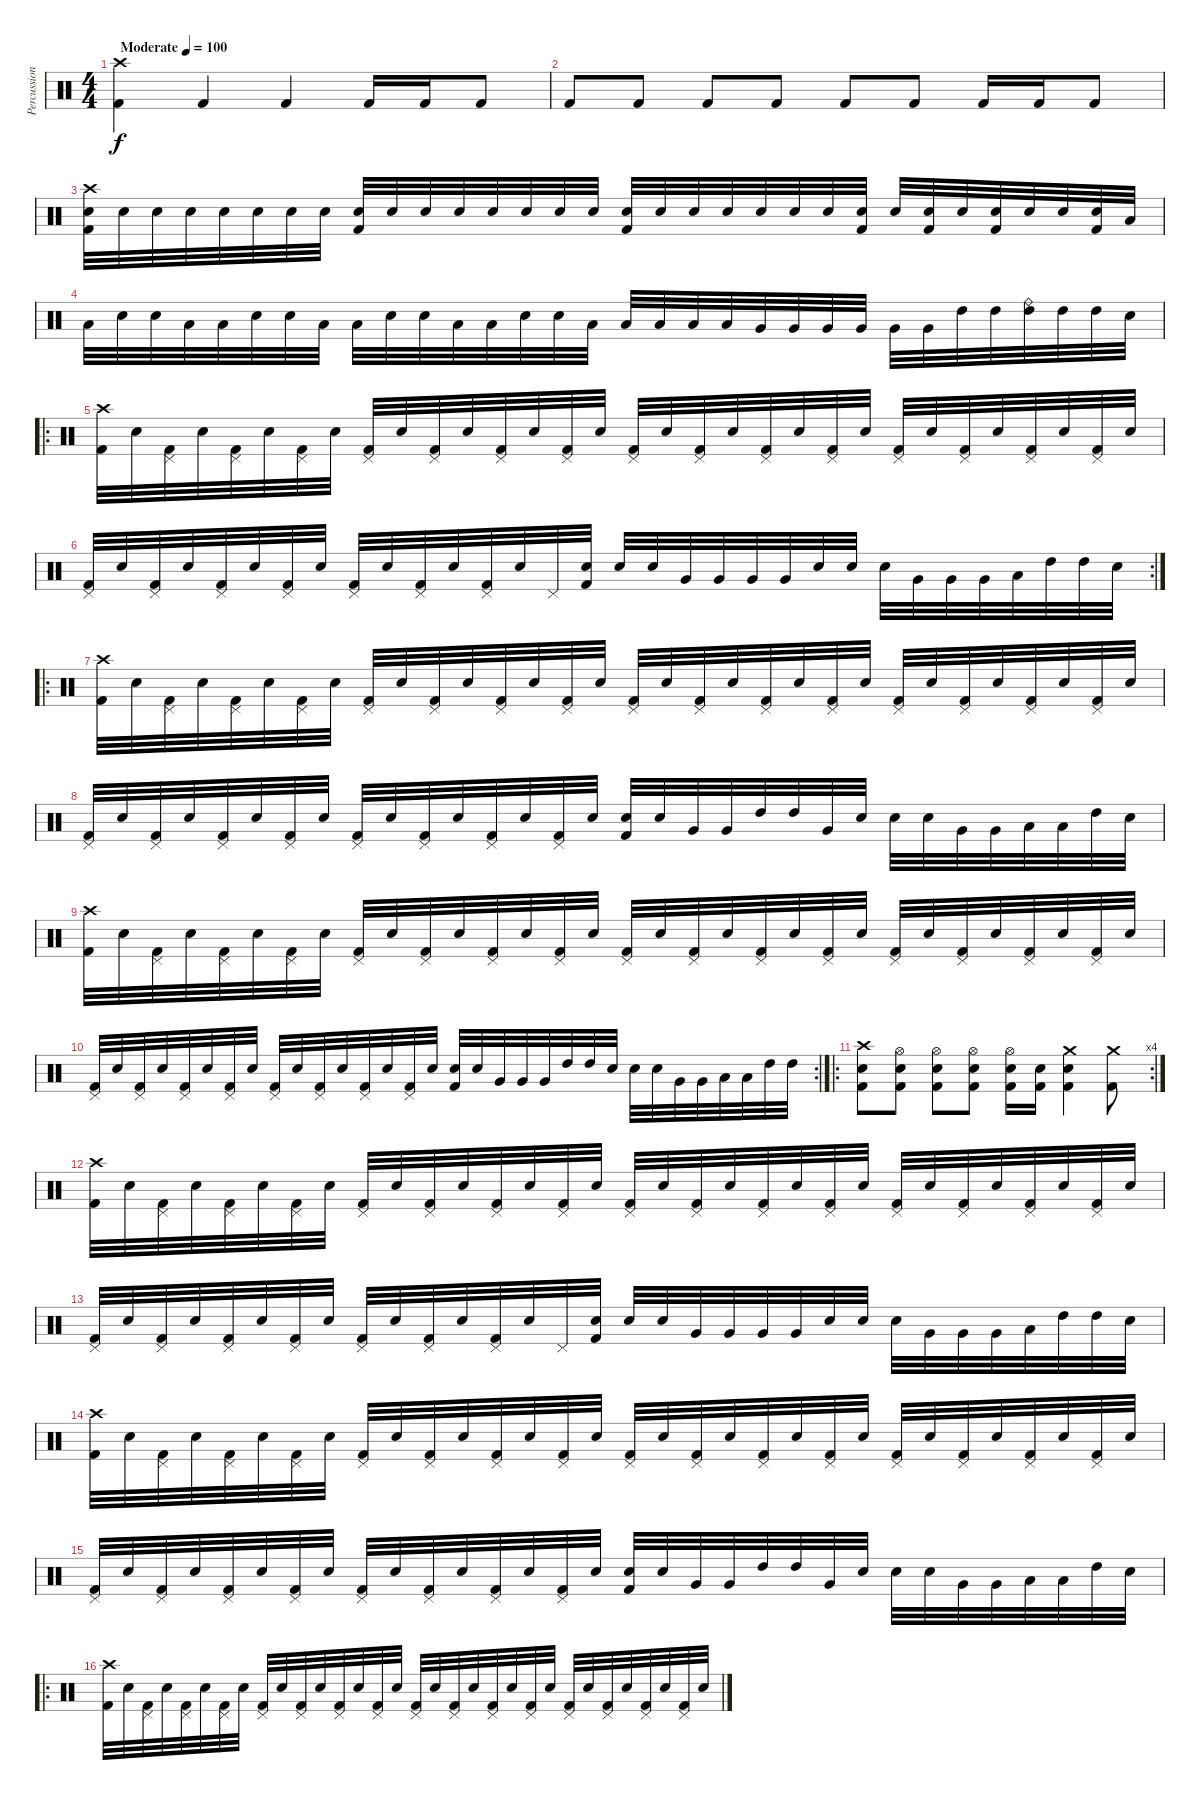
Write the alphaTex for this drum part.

\track ("Percussion" "Percussion") {instrument percussion}
\staff {score}
\articulation defaults
\ts (4 4)
\tempo (100 "Moderate")
\clef neutral
\ks c
("Crash high (hit)" "Kick (hit) 2").4{dy f} "Kick (hit) 2".4 "Kick (hit) 2".4 "Kick (hit) 2".16 "Kick (hit) 2".16 "Kick (hit) 2".8 |
"Kick (hit) 2".8 "Kick (hit) 2".8 "Kick (hit) 2".8 "Kick (hit) 2".8 "Kick (hit) 2".8 "Kick (hit) 2".8 "Kick (hit) 2".16 "Kick (hit) 2".16 "Kick (hit) 2".8 |
("Crash high (hit)" "Electric Snare (hit)" "Kick (hit) 2").32 "Electric Snare (hit)".32 "Electric Snare (hit)".32 "Electric Snare (hit)".32 "Electric Snare (hit)".32 "Electric Snare (hit)".32 "Electric Snare (hit)".32 "Electric Snare (hit)".32 ("Electric Snare (hit)" "Kick (hit) 2").32 "Electric Snare (hit)".32 "Electric Snare (hit)".32 "Electric Snare (hit)".32 "Electric Snare (hit)".32 "Electric Snare (hit)".32 "Electric Snare (hit)".32 "Electric Snare (hit)".32 ("Electric Snare (hit)" "Kick (hit) 2").32 "Electric Snare (hit)".32 "Electric Snare (hit)".32 "Electric Snare (hit)".32 "Electric Snare (hit)".32 "Electric Snare (hit)".32 "Electric Snare (hit)".32 ("Electric Snare (hit)" "Kick (hit) 2").32 "Electric Snare (hit)".32 ("Electric Snare (hit)" "Kick (hit) 2").32 "Electric Snare (hit)".32 ("Electric Snare (hit)" "Kick (hit) 2").32 "Electric Snare (hit)".32 "Electric Snare (hit)".32 ("Electric Snare (hit)" "Kick (hit) 2").32 "Low Tom (hit)".32 |
"Low Tom (hit)".32 "Electric Snare (hit)".32 "Electric Snare (hit)".32 "Low Tom (hit)".32 "Low Tom (hit)".32 "Electric Snare (hit)".32 "Electric Snare (hit)".32 "Low Tom (hit)".32 "Low Tom (hit)".32 "Electric Snare (hit)".32 "Electric Snare (hit)".32 "Low Tom (hit)".32 "Low Tom (hit)".32 "Electric Snare (hit)".32 "Electric Snare (hit)".32 "Low Tom (hit)".32 "Low Tom (hit)".32 "Low Tom (hit)".32 "Low Tom (hit)".32 "Low Tom (hit)".32 "Very Low Tom (hit)".32 "Very Low Tom (hit)".32 "Very Low Tom (hit)".32 "Very Low Tom (hit)".32 "Very Low Tom (hit)".32 "Very Low Tom (hit)".32 "High Tom (hit)".32 "High Tom (hit)".32 ("Ride (bell)" "High Tom (hit)").32 "High Tom (hit)".32 "High Tom (hit)".32 "Electric Snare (hit)".32 |
\ro
("Crash high (hit)" "Kick (hit) 2").32 "Electric Snare (hit)".32 ("Pedal Hi-Hat (hit)" "Kick (hit) 2").32 "Electric Snare (hit)".32 ("Pedal Hi-Hat (hit)" "Kick (hit) 2").32 "Electric Snare (hit)".32 ("Pedal Hi-Hat (hit)" "Kick (hit) 2").32 "Electric Snare (hit)".32 ("Pedal Hi-Hat (hit)" "Kick (hit) 2").32 "Electric Snare (hit)".32 ("Pedal Hi-Hat (hit)" "Kick (hit) 2").32 "Electric Snare (hit)".32 ("Pedal Hi-Hat (hit)" "Kick (hit) 2").32 "Electric Snare (hit)".32 ("Pedal Hi-Hat (hit)" "Kick (hit) 2").32 "Electric Snare (hit)".32 ("Pedal Hi-Hat (hit)" "Kick (hit) 2").32 "Electric Snare (hit)".32 ("Pedal Hi-Hat (hit)" "Kick (hit) 2").32 "Electric Snare (hit)".32 ("Pedal Hi-Hat (hit)" "Kick (hit) 2").32 "Electric Snare (hit)".32 ("Pedal Hi-Hat (hit)" "Kick (hit) 2").32 "Electric Snare (hit)".32 ("Pedal Hi-Hat (hit)" "Kick (hit) 2").32 "Electric Snare (hit)".32 ("Pedal Hi-Hat (hit)" "Kick (hit) 2").32 "Electric Snare (hit)".32 ("Pedal Hi-Hat (hit)" "Kick (hit) 2").32 "Electric Snare (hit)".32 ("Pedal Hi-Hat (hit)" "Kick (hit) 2").32 "Electric Snare (hit)".32 |
\rc 2
("Pedal Hi-Hat (hit)" "Kick (hit) 2").32 "Electric Snare (hit)".32 ("Pedal Hi-Hat (hit)" "Kick (hit) 2").32 "Electric Snare (hit)".32 ("Pedal Hi-Hat (hit)" "Kick (hit) 2").32 "Electric Snare (hit)".32 ("Pedal Hi-Hat (hit)" "Kick (hit) 2").32 "Electric Snare (hit)".32 ("Pedal Hi-Hat (hit)" "Kick (hit) 2").32 "Electric Snare (hit)".32 ("Pedal Hi-Hat (hit)" "Kick (hit) 2").32 "Electric Snare (hit)".32 ("Pedal Hi-Hat (hit)" "Kick (hit) 2").32 "Electric Snare (hit)".32 "Pedal Hi-Hat (hit)".32 ("Electric Snare (hit)" "Kick (hit) 2").32 "Electric Snare (hit)".32 "Electric Snare (hit)".32 "Very Low Tom (hit)".32 "Very Low Tom (hit)".32 "Very Low Tom (hit)".32 "Very Low Tom (hit)".32 "Electric Snare (hit)".32 "Electric Snare (hit)".32 "Electric Snare (hit)".32 "Very Low Tom (hit)".32 "Very Low Tom (hit)".32 "Very Low Tom (hit)".32 "Low Tom (hit)".32 "High Tom (hit)".32 "High Tom (hit)".32 "Electric Snare (hit)".32 |
\ro
("Crash high (hit)" "Kick (hit) 2").32 "Electric Snare (hit)".32 ("Pedal Hi-Hat (hit)" "Kick (hit) 2").32 "Electric Snare (hit)".32 ("Pedal Hi-Hat (hit)" "Kick (hit) 2").32 "Electric Snare (hit)".32 ("Pedal Hi-Hat (hit)" "Kick (hit) 2").32 "Electric Snare (hit)".32 ("Pedal Hi-Hat (hit)" "Kick (hit) 2").32 "Electric Snare (hit)".32 ("Pedal Hi-Hat (hit)" "Kick (hit) 2").32 "Electric Snare (hit)".32 ("Pedal Hi-Hat (hit)" "Kick (hit) 2").32 "Electric Snare (hit)".32 ("Pedal Hi-Hat (hit)" "Kick (hit) 2").32 "Electric Snare (hit)".32 ("Pedal Hi-Hat (hit)" "Kick (hit) 2").32 "Electric Snare (hit)".32 ("Pedal Hi-Hat (hit)" "Kick (hit) 2").32 "Electric Snare (hit)".32 ("Pedal Hi-Hat (hit)" "Kick (hit) 2").32 "Electric Snare (hit)".32 ("Pedal Hi-Hat (hit)" "Kick (hit) 2").32 "Electric Snare (hit)".32 ("Pedal Hi-Hat (hit)" "Kick (hit) 2").32 "Electric Snare (hit)".32 ("Pedal Hi-Hat (hit)" "Kick (hit) 2").32 "Electric Snare (hit)".32 ("Pedal Hi-Hat (hit)" "Kick (hit) 2").32 "Electric Snare (hit)".32 ("Pedal Hi-Hat (hit)" "Kick (hit) 2").32 "Electric Snare (hit)".32 |
("Pedal Hi-Hat (hit)" "Kick (hit) 2").32 "Electric Snare (hit)".32 ("Pedal Hi-Hat (hit)" "Kick (hit) 2").32 "Electric Snare (hit)".32 ("Pedal Hi-Hat (hit)" "Kick (hit) 2").32 "Electric Snare (hit)".32 ("Pedal Hi-Hat (hit)" "Kick (hit) 2").32 "Electric Snare (hit)".32 ("Pedal Hi-Hat (hit)" "Kick (hit) 2").32 "Electric Snare (hit)".32 ("Pedal Hi-Hat (hit)" "Kick (hit) 2").32 "Electric Snare (hit)".32 ("Pedal Hi-Hat (hit)" "Kick (hit) 2").32 "Electric Snare (hit)".32 ("Pedal Hi-Hat (hit)" "Kick (hit) 2").32 "Electric Snare (hit)".32 ("Electric Snare (hit)" "Kick (hit) 2").32 "Electric Snare (hit)".32 "Very Low Tom (hit)".32 "Very Low Tom (hit)".32 "High Tom (hit)".32 "High Tom (hit)".32 "Very Low Tom (hit)".32 "Electric Snare (hit)".32 "Electric Snare (hit)".32 "Electric Snare (hit)".32 "Very Low Tom (hit)".32 "Very Low Tom (hit)".32 "Low Tom (hit)".32 "Low Tom (hit)".32 "High Tom (hit)".32 "Electric Snare (hit)".32 |
("Crash high (hit)" "Kick (hit) 2").32 "Electric Snare (hit)".32 ("Pedal Hi-Hat (hit)" "Kick (hit) 2").32 "Electric Snare (hit)".32 ("Pedal Hi-Hat (hit)" "Kick (hit) 2").32 "Electric Snare (hit)".32 ("Pedal Hi-Hat (hit)" "Kick (hit) 2").32 "Electric Snare (hit)".32 ("Pedal Hi-Hat (hit)" "Kick (hit) 2").32 "Electric Snare (hit)".32 ("Pedal Hi-Hat (hit)" "Kick (hit) 2").32 "Electric Snare (hit)".32 ("Pedal Hi-Hat (hit)" "Kick (hit) 2").32 "Electric Snare (hit)".32 ("Pedal Hi-Hat (hit)" "Kick (hit) 2").32 "Electric Snare (hit)".32 ("Pedal Hi-Hat (hit)" "Kick (hit) 2").32 "Electric Snare (hit)".32 ("Pedal Hi-Hat (hit)" "Kick (hit) 2").32 "Electric Snare (hit)".32 ("Pedal Hi-Hat (hit)" "Kick (hit) 2").32 "Electric Snare (hit)".32 ("Pedal Hi-Hat (hit)" "Kick (hit) 2").32 "Electric Snare (hit)".32 ("Pedal Hi-Hat (hit)" "Kick (hit) 2").32 "Electric Snare (hit)".32 ("Pedal Hi-Hat (hit)" "Kick (hit) 2").32 "Electric Snare (hit)".32 ("Pedal Hi-Hat (hit)" "Kick (hit) 2").32 "Electric Snare (hit)".32 ("Pedal Hi-Hat (hit)" "Kick (hit) 2").32 "Electric Snare (hit)".32 |
\rc 2
("Pedal Hi-Hat (hit)" "Kick (hit) 2").32 "Electric Snare (hit)".32 ("Pedal Hi-Hat (hit)" "Kick (hit) 2").32 "Electric Snare (hit)".32 ("Pedal Hi-Hat (hit)" "Kick (hit) 2").32 "Electric Snare (hit)".32 ("Pedal Hi-Hat (hit)" "Kick (hit) 2").32 "Electric Snare (hit)".32 ("Pedal Hi-Hat (hit)" "Kick (hit) 2").32 "Electric Snare (hit)".32 ("Pedal Hi-Hat (hit)" "Kick (hit) 2").32 "Electric Snare (hit)".32 ("Pedal Hi-Hat (hit)" "Kick (hit) 2").32 "Electric Snare (hit)".32 ("Pedal Hi-Hat (hit)" "Kick (hit) 2").32 "Electric Snare (hit)".32 ("Electric Snare (hit)" "Kick (hit) 2").32 "Electric Snare (hit)".32 "Very Low Tom (hit)".32 "Very Low Tom (hit)".32 "Very Low Tom (hit)".32 "High Tom (hit)".32 "High Tom (hit)".32 "Electric Snare (hit)".32 "Electric Snare (hit)".32 "Electric Snare (hit)".32 "Very Low Tom (hit)".32 "Very Low Tom (hit)".32 "Low Tom (hit)".32 "Low Tom (hit)".32 "High Tom (hit)".32 "High Tom (hit)".32 |
\ro
\rc 4
("Crash high (hit)" "Electric Snare (hit)" "Kick (hit) 2").8 ("Hi-Hat (open)" "Electric Snare (hit)" "Kick (hit) 2").8 ("Hi-Hat (open)" "Electric Snare (hit)" "Kick (hit) 2").8 ("Hi-Hat (open)" "Electric Snare (hit)" "Kick (hit) 2").8 ("Hi-Hat (open)" "Electric Snare (hit)" "Kick (hit) 2").16 ("Electric Snare (hit)" "Kick (hit) 2").16 ("Crash medium (hit)" "Electric Snare (hit)" "Kick (hit) 2").4 ("Crash medium (hit)" "Kick (hit) 2").8 |
("Crash high (hit)" "Kick (hit) 2").32 "Electric Snare (hit)".32 ("Pedal Hi-Hat (hit)" "Kick (hit) 2").32 "Electric Snare (hit)".32 ("Pedal Hi-Hat (hit)" "Kick (hit) 2").32 "Electric Snare (hit)".32 ("Pedal Hi-Hat (hit)" "Kick (hit) 2").32 "Electric Snare (hit)".32 ("Pedal Hi-Hat (hit)" "Kick (hit) 2").32 "Electric Snare (hit)".32 ("Pedal Hi-Hat (hit)" "Kick (hit) 2").32 "Electric Snare (hit)".32 ("Pedal Hi-Hat (hit)" "Kick (hit) 2").32 "Electric Snare (hit)".32 ("Pedal Hi-Hat (hit)" "Kick (hit) 2").32 "Electric Snare (hit)".32 ("Pedal Hi-Hat (hit)" "Kick (hit) 2").32 "Electric Snare (hit)".32 ("Pedal Hi-Hat (hit)" "Kick (hit) 2").32 "Electric Snare (hit)".32 ("Pedal Hi-Hat (hit)" "Kick (hit) 2").32 "Electric Snare (hit)".32 ("Pedal Hi-Hat (hit)" "Kick (hit) 2").32 "Electric Snare (hit)".32 ("Pedal Hi-Hat (hit)" "Kick (hit) 2").32 "Electric Snare (hit)".32 ("Pedal Hi-Hat (hit)" "Kick (hit) 2").32 "Electric Snare (hit)".32 ("Pedal Hi-Hat (hit)" "Kick (hit) 2").32 "Electric Snare (hit)".32 ("Pedal Hi-Hat (hit)" "Kick (hit) 2").32 "Electric Snare (hit)".32 |
("Pedal Hi-Hat (hit)" "Kick (hit) 2").32 "Electric Snare (hit)".32 ("Pedal Hi-Hat (hit)" "Kick (hit) 2").32 "Electric Snare (hit)".32 ("Pedal Hi-Hat (hit)" "Kick (hit) 2").32 "Electric Snare (hit)".32 ("Pedal Hi-Hat (hit)" "Kick (hit) 2").32 "Electric Snare (hit)".32 ("Pedal Hi-Hat (hit)" "Kick (hit) 2").32 "Electric Snare (hit)".32 ("Pedal Hi-Hat (hit)" "Kick (hit) 2").32 "Electric Snare (hit)".32 ("Pedal Hi-Hat (hit)" "Kick (hit) 2").32 "Electric Snare (hit)".32 "Pedal Hi-Hat (hit)".32 ("Electric Snare (hit)" "Kick (hit) 2").32 "Electric Snare (hit)".32 "Electric Snare (hit)".32 "Very Low Tom (hit)".32 "Very Low Tom (hit)".32 "Very Low Tom (hit)".32 "Very Low Tom (hit)".32 "Electric Snare (hit)".32 "Electric Snare (hit)".32 "Electric Snare (hit)".32 "Very Low Tom (hit)".32 "Very Low Tom (hit)".32 "Very Low Tom (hit)".32 "Low Tom (hit)".32 "High Tom (hit)".32 "High Tom (hit)".32 "Electric Snare (hit)".32 |
("Crash high (hit)" "Kick (hit) 2").32 "Electric Snare (hit)".32 ("Pedal Hi-Hat (hit)" "Kick (hit) 2").32 "Electric Snare (hit)".32 ("Pedal Hi-Hat (hit)" "Kick (hit) 2").32 "Electric Snare (hit)".32 ("Pedal Hi-Hat (hit)" "Kick (hit) 2").32 "Electric Snare (hit)".32 ("Pedal Hi-Hat (hit)" "Kick (hit) 2").32 "Electric Snare (hit)".32 ("Pedal Hi-Hat (hit)" "Kick (hit) 2").32 "Electric Snare (hit)".32 ("Pedal Hi-Hat (hit)" "Kick (hit) 2").32 "Electric Snare (hit)".32 ("Pedal Hi-Hat (hit)" "Kick (hit) 2").32 "Electric Snare (hit)".32 ("Pedal Hi-Hat (hit)" "Kick (hit) 2").32 "Electric Snare (hit)".32 ("Pedal Hi-Hat (hit)" "Kick (hit) 2").32 "Electric Snare (hit)".32 ("Pedal Hi-Hat (hit)" "Kick (hit) 2").32 "Electric Snare (hit)".32 ("Pedal Hi-Hat (hit)" "Kick (hit) 2").32 "Electric Snare (hit)".32 ("Pedal Hi-Hat (hit)" "Kick (hit) 2").32 "Electric Snare (hit)".32 ("Pedal Hi-Hat (hit)" "Kick (hit) 2").32 "Electric Snare (hit)".32 ("Pedal Hi-Hat (hit)" "Kick (hit) 2").32 "Electric Snare (hit)".32 ("Pedal Hi-Hat (hit)" "Kick (hit) 2").32 "Electric Snare (hit)".32 |
("Pedal Hi-Hat (hit)" "Kick (hit) 2").32 "Electric Snare (hit)".32 ("Pedal Hi-Hat (hit)" "Kick (hit) 2").32 "Electric Snare (hit)".32 ("Pedal Hi-Hat (hit)" "Kick (hit) 2").32 "Electric Snare (hit)".32 ("Pedal Hi-Hat (hit)" "Kick (hit) 2").32 "Electric Snare (hit)".32 ("Pedal Hi-Hat (hit)" "Kick (hit) 2").32 "Electric Snare (hit)".32 ("Pedal Hi-Hat (hit)" "Kick (hit) 2").32 "Electric Snare (hit)".32 ("Pedal Hi-Hat (hit)" "Kick (hit) 2").32 "Electric Snare (hit)".32 ("Pedal Hi-Hat (hit)" "Kick (hit) 2").32 "Electric Snare (hit)".32 ("Electric Snare (hit)" "Kick (hit) 2").32 "Electric Snare (hit)".32 "Very Low Tom (hit)".32 "Very Low Tom (hit)".32 "High Tom (hit)".32 "High Tom (hit)".32 "Very Low Tom (hit)".32 "Electric Snare (hit)".32 "Electric Snare (hit)".32 "Electric Snare (hit)".32 "Very Low Tom (hit)".32 "Very Low Tom (hit)".32 "Low Tom (hit)".32 "Low Tom (hit)".32 "High Tom (hit)".32 "Electric Snare (hit)".32 |
\ro
("Crash high (hit)" "Kick (hit) 2").32 "Electric Snare (hit)".32 ("Pedal Hi-Hat (hit)" "Kick (hit) 2").32 "Electric Snare (hit)".32 ("Pedal Hi-Hat (hit)" "Kick (hit) 2").32 "Electric Snare (hit)".32 ("Pedal Hi-Hat (hit)" "Kick (hit) 2").32 "Electric Snare (hit)".32 ("Pedal Hi-Hat (hit)" "Kick (hit) 2").32 "Electric Snare (hit)".32 ("Pedal Hi-Hat (hit)" "Kick (hit) 2").32 "Electric Snare (hit)".32 ("Pedal Hi-Hat (hit)" "Kick (hit) 2").32 "Electric Snare (hit)".32 ("Pedal Hi-Hat (hit)" "Kick (hit) 2").32 "Electric Snare (hit)".32 ("Pedal Hi-Hat (hit)" "Kick (hit) 2").32 "Electric Snare (hit)".32 ("Pedal Hi-Hat (hit)" "Kick (hit) 2").32 "Electric Snare (hit)".32 ("Pedal Hi-Hat (hit)" "Kick (hit) 2").32 "Electric Snare (hit)".32 ("Pedal Hi-Hat (hit)" "Kick (hit) 2").32 "Electric Snare (hit)".32 ("Pedal Hi-Hat (hit)" "Kick (hit) 2").32 "Electric Snare (hit)".32 ("Pedal Hi-Hat (hit)" "Kick (hit) 2").32 "Electric Snare (hit)".32 ("Pedal Hi-Hat (hit)" "Kick (hit) 2").32 "Electric Snare (hit)".32 ("Pedal Hi-Hat (hit)" "Kick (hit) 2").32 "Electric Snare (hit)".32
